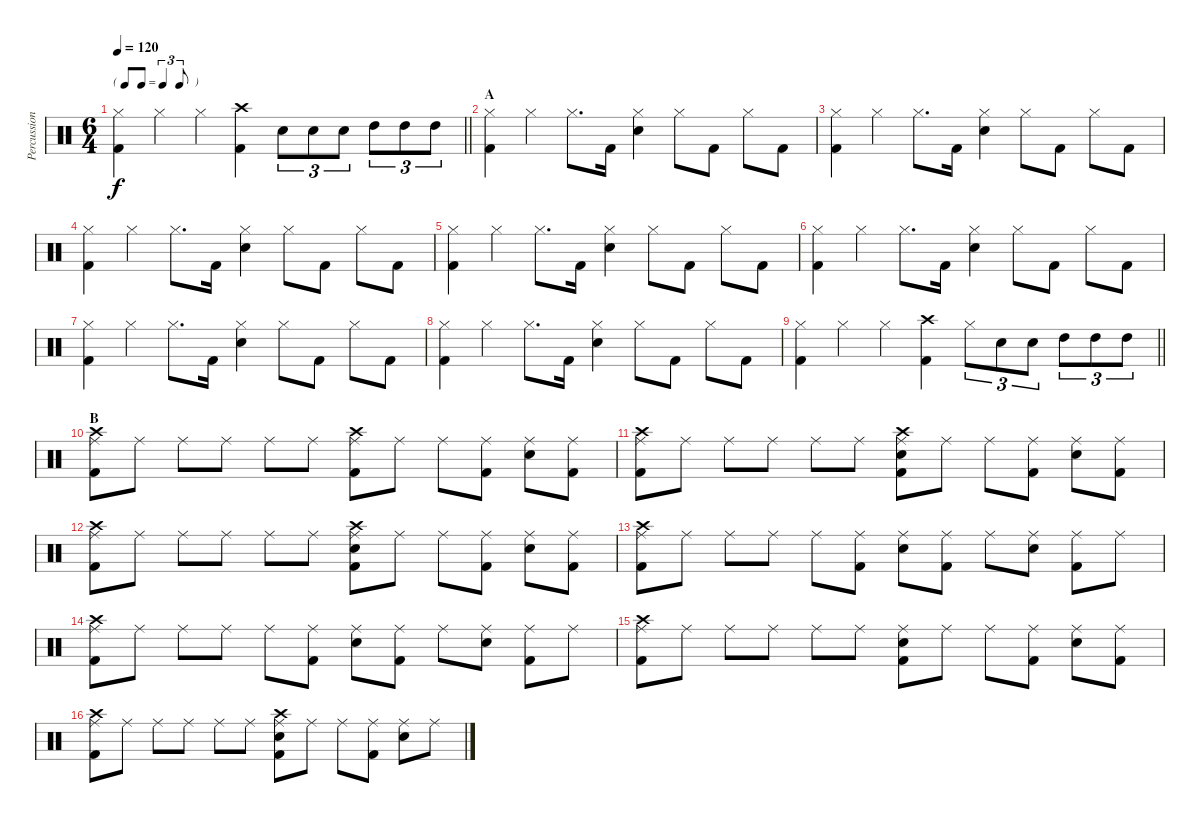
\track ("Percussion" "Percussion") {instrument percussion}
\staff {score}
\articulation defaults
\ts (6 4)
\tf triplet8th
\tempo 120
\clef neutral
\barLineRight lightlight
\ks c
("Hi-Hat (closed)" "Kick (hit) 2").4{dy f} "Hi-Hat (closed)".4 "Hi-Hat (closed)".4 ("Crash high (hit)" "Kick (hit) 2").4 "Snare (hit) 2".8{tu (3 2)} "Snare (hit) 2".8{tu (3 2)} "Snare (hit) 2".8{tu (3 2)} "High Tom (hit)".8{tu (3 2)} "High Tom (hit)".8{tu (3 2)} "High Tom (hit)".8{tu (3 2)} |
\section ("" "A")
("Hi-Hat (closed)" "Kick (hit) 2").4 "Hi-Hat (closed)".4 "Hi-Hat (closed)".8{d} "Kick (hit) 2".16 ("Hi-Hat (closed)" "Snare (hit) 2").4 "Hi-Hat (closed)".8 "Kick (hit) 2".8 "Hi-Hat (closed)".8 "Kick (hit) 2".8 |
("Hi-Hat (closed)" "Kick (hit) 2").4 "Hi-Hat (closed)".4 "Hi-Hat (closed)".8{d} "Kick (hit) 2".16 ("Hi-Hat (closed)" "Snare (hit) 2").4 "Hi-Hat (closed)".8 "Kick (hit) 2".8 "Hi-Hat (closed)".8 "Kick (hit) 2".8 |
("Hi-Hat (closed)" "Kick (hit) 2").4 "Hi-Hat (closed)".4 "Hi-Hat (closed)".8{d} "Kick (hit) 2".16 ("Hi-Hat (closed)" "Snare (hit) 2").4 "Hi-Hat (closed)".8 "Kick (hit) 2".8 "Hi-Hat (closed)".8 "Kick (hit) 2".8 |
("Hi-Hat (closed)" "Kick (hit) 2").4 "Hi-Hat (closed)".4 "Hi-Hat (closed)".8{d} "Kick (hit) 2".16 ("Hi-Hat (closed)" "Snare (hit) 2").4 "Hi-Hat (closed)".8 "Kick (hit) 2".8 "Hi-Hat (closed)".8 "Kick (hit) 2".8 |
("Hi-Hat (closed)" "Kick (hit) 2").4 "Hi-Hat (closed)".4 "Hi-Hat (closed)".8{d} "Kick (hit) 2".16 ("Hi-Hat (closed)" "Snare (hit) 2").4 "Hi-Hat (closed)".8 "Kick (hit) 2".8 "Hi-Hat (closed)".8 "Kick (hit) 2".8 |
("Hi-Hat (closed)" "Kick (hit) 2").4 "Hi-Hat (closed)".4 "Hi-Hat (closed)".8{d} "Kick (hit) 2".16 ("Hi-Hat (closed)" "Snare (hit) 2").4 "Hi-Hat (closed)".8 "Kick (hit) 2".8 "Hi-Hat (closed)".8 "Kick (hit) 2".8 |
("Hi-Hat (closed)" "Kick (hit) 2").4 "Hi-Hat (closed)".4 "Hi-Hat (closed)".8{d} "Kick (hit) 2".16 ("Hi-Hat (closed)" "Snare (hit) 2").4 "Hi-Hat (closed)".8 "Kick (hit) 2".8 "Hi-Hat (closed)".8 "Kick (hit) 2".8 |
\barLineRight lightlight
("Hi-Hat (closed)" "Kick (hit) 2").4 "Hi-Hat (closed)".4 "Hi-Hat (closed)".4 ("Crash high (hit)" "Kick (hit) 2").4 "Hi-Hat (closed)".8{tu (3 2)} "Snare (hit) 2".8{tu (3 2)} "Snare (hit) 2".8{tu (3 2)} "High Tom (hit)".8{tu (3 2)} "High Tom (hit)".8{tu (3 2)} "High Tom (hit)".8{tu (3 2)} |
\section ("" "B")
("Ride (middle)" "Crash high (hit)" "Kick (hit) 2").8 "Ride (middle)".8 "Ride (middle)".8 "Ride (middle)".8 "Ride (middle)".8 "Ride (middle)".8 ("Ride (middle)" "Crash high (hit)" "Kick (hit) 2").8 "Ride (middle)".8 "Ride (middle)".8 ("Ride (middle)" "Kick (hit) 2").8 ("Ride (middle)" "Snare (hit) 2").8 ("Ride (middle)" "Kick (hit) 2").8 |
("Ride (middle)" "Crash high (hit)" "Kick (hit) 2").8 "Ride (middle)".8 "Ride (middle)".8 "Ride (middle)".8 "Ride (middle)".8 "Ride (middle)".8 ("Ride (middle)" "Crash high (hit)" "Snare (hit) 2" "Kick (hit) 2").8 "Ride (middle)".8 "Ride (middle)".8 ("Ride (middle)" "Kick (hit) 2").8 ("Ride (middle)" "Snare (hit) 2").8 ("Ride (middle)" "Kick (hit) 2").8 |
("Ride (middle)" "Crash high (hit)" "Kick (hit) 2").8 "Ride (middle)".8 "Ride (middle)".8 "Ride (middle)".8 "Ride (middle)".8 "Ride (middle)".8 ("Ride (middle)" "Crash high (hit)" "Snare (hit) 2" "Kick (hit) 2").8 "Ride (middle)".8 "Ride (middle)".8 ("Ride (middle)" "Kick (hit) 2").8 ("Ride (middle)" "Snare (hit) 2").8 ("Ride (middle)" "Kick (hit) 2").8 |
("Ride (middle)" "Crash high (hit)" "Kick (hit) 2").8 "Ride (middle)".8 "Ride (middle)".8 "Ride (middle)".8 "Ride (middle)".8 ("Ride (middle)" "Kick (hit) 2").8 ("Ride (middle)" "Snare (hit) 2").8 ("Ride (middle)" "Kick (hit) 2").8 "Ride (middle)".8 ("Ride (middle)" "Snare (hit) 2").8 ("Ride (middle)" "Kick (hit) 2").8 "Ride (middle)".8 |
("Ride (middle)" "Crash high (hit)" "Kick (hit) 2").8 "Ride (middle)".8 "Ride (middle)".8 "Ride (middle)".8 "Ride (middle)".8 ("Ride (middle)" "Kick (hit) 2").8 ("Ride (middle)" "Snare (hit) 2").8 ("Ride (middle)" "Kick (hit) 2").8 "Ride (middle)".8 ("Ride (middle)" "Snare (hit) 2").8 ("Ride (middle)" "Kick (hit) 2").8 "Ride (middle)".8 |
("Ride (middle)" "Crash high (hit)" "Kick (hit) 2").8 "Ride (middle)".8 "Ride (middle)".8 "Ride (middle)".8 "Ride (middle)".8 "Ride (middle)".8 ("Ride (middle)" "Snare (hit) 2" "Kick (hit) 2").8 "Ride (middle)".8 "Ride (middle)".8 ("Ride (middle)" "Kick (hit) 2").8 ("Ride (middle)" "Snare (hit) 2").8 ("Ride (middle)" "Kick (hit) 2").8 |
("Ride (middle)" "Crash high (hit)" "Kick (hit) 2").8 "Ride (middle)".8 "Ride (middle)".8 "Ride (middle)".8 "Ride (middle)".8 "Ride (middle)".8 ("Ride (middle)" "Crash high (hit)" "Snare (hit) 2" "Kick (hit) 2").8 "Ride (middle)".8 "Ride (middle)".8 ("Ride (middle)" "Kick (hit) 2").8 ("Ride (middle)" "Snare (hit) 2").8 "Ride (middle)".8
